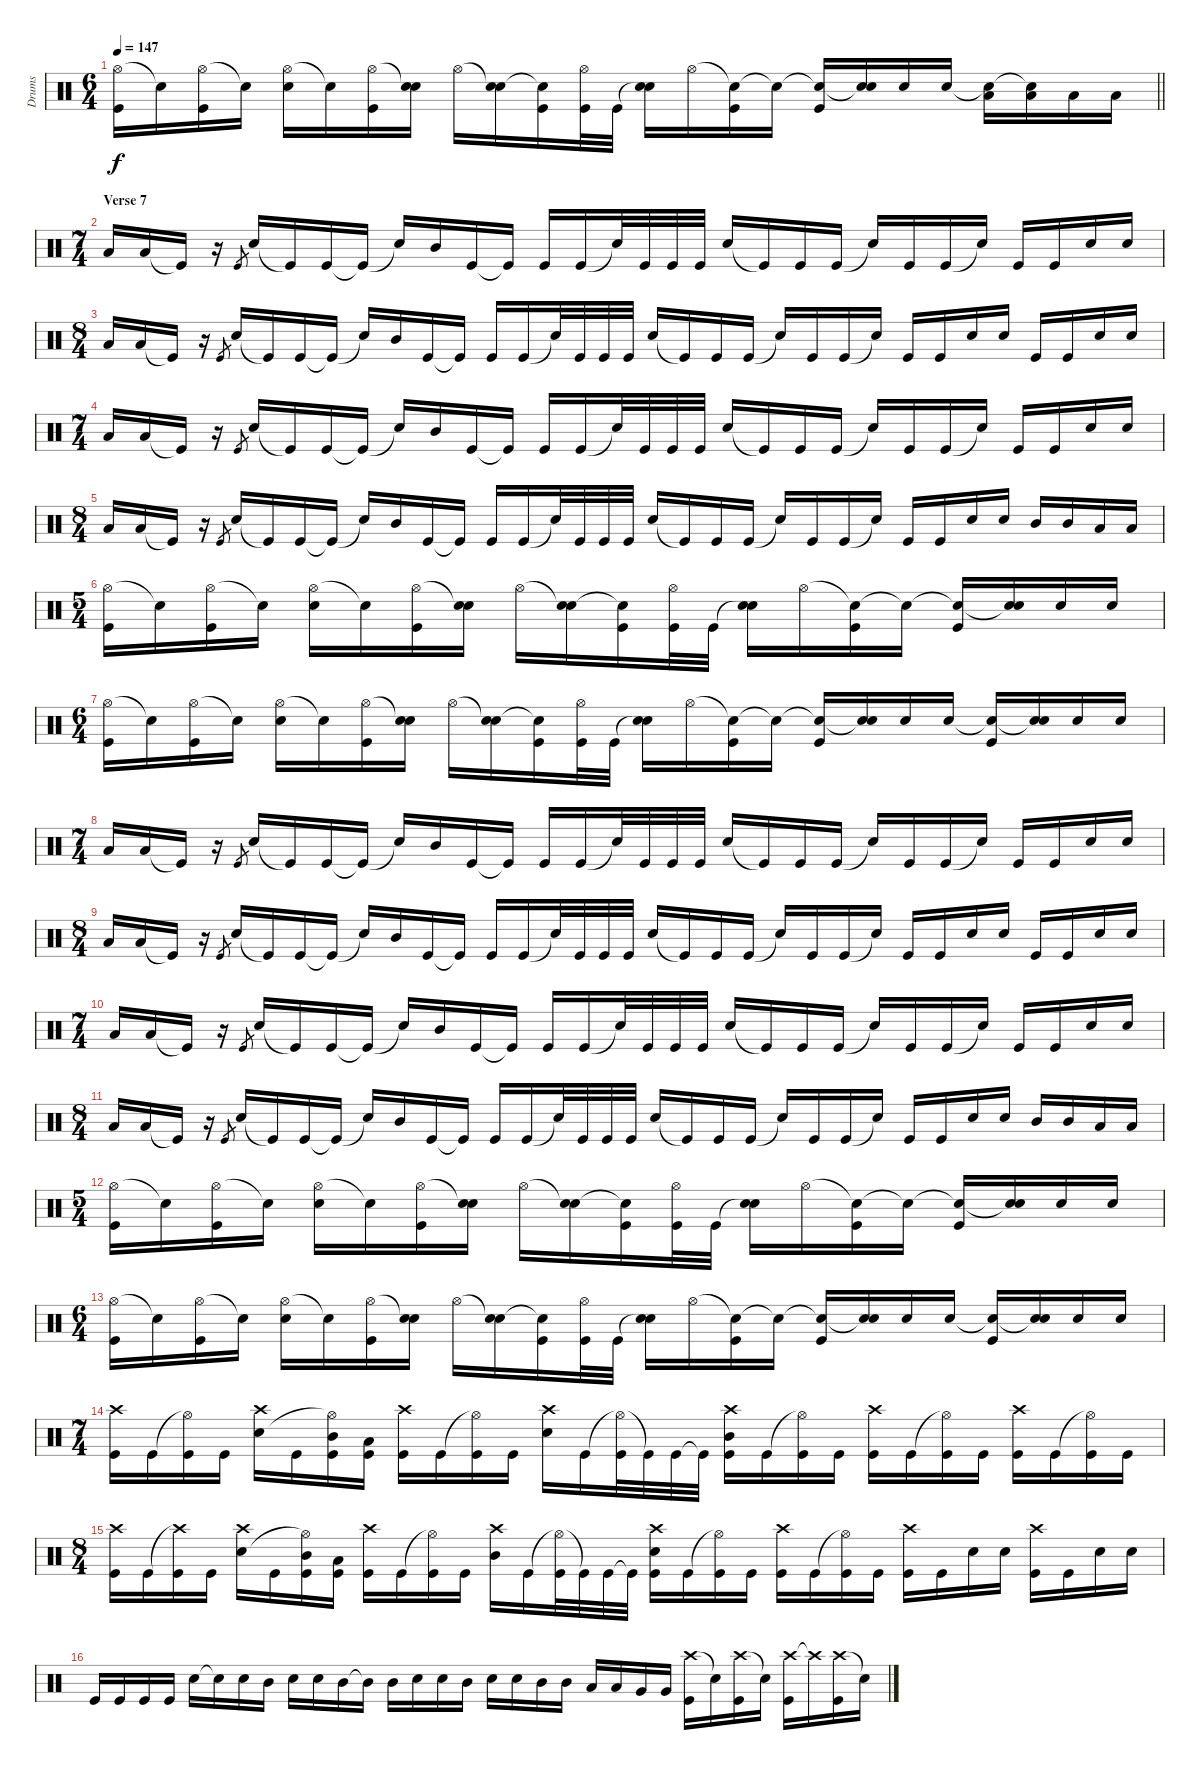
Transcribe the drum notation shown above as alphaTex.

\track ("Drums" "Drums") {instrument percussion}
\staff {score}
\articulation defaults
\ts (6 4)
\tempo 147
\clef neutral
\barLineRight lightlight
\ks c
("Hi-Hat (open)" "Kick (hit)").16{dy f} "Snare (hit)"{t}.16 ("Hi-Hat (open)" "Kick (hit)").16 "Snare (hit)"{t}.16 ("Hi-Hat (open)" "Electric Snare (hit)").16 "Snare (hit)"{t}.16 ("Hi-Hat (open)" "Kick (hit)").16 ("Snare (hit)"{t} "Electric Snare (hit)").16 "Hi-Hat (open)".16 ("Snare (hit)"{t} "Electric Snare (hit)").16 ("Snare (hit)"{t} "Kick (hit)").16 ("Hi-Hat (open)" "Kick (hit)").32 "Kick (hit)".32 ("Snare (hit)"{t} "Electric Snare (hit)").16 "Hi-Hat (open)".16 ("Snare (hit)"{t} "Kick (hit)").16 "Snare (hit)"{t}.16 ("Snare (hit)"{t} "Kick (hit)").16 ("Snare (hit)"{t} "Electric Snare (hit)").16 "Electric Snare (hit)".16 "Electric Snare (hit)".16 ("Snare (hit)"{t} "Low Tom (hit)").16 ("Snare (hit)"{t} "Low Tom (hit)").16 "Low Tom (hit)".16 "Low Tom (hit)".16 |
\ts (7 4)
\section ("" "Verse 7")
"Low Tom (hit)".16 "Low Tom (hit)".16 "Kick (hit)"{t}.16 r.16 "Kick (hit)".8{gr} "Electric Snare (hit)".16 "Kick (hit)"{t}.16 "Kick (hit)".16 "Kick (hit)"{t}.16 "Snare (hit)"{t}.16 "Mid Tom (hit)".16 "Kick (hit)".16 "Kick (hit)"{t}.16 "Kick (hit)".16 "Kick (hit)".16 "Snare (hit)"{t}.32 "Kick (hit)".32 "Kick (hit)".32 "Kick (hit)".32 "Electric Snare (hit)".16 "Kick (hit)"{t}.16 "Kick (hit)".16 "Kick (hit)".16 "Snare (hit)"{t}.16 "Kick (hit)".16 "Kick (hit)".16 "Snare (hit)"{t}.16 "Kick (hit)".16 "Kick (hit)".16 "Electric Snare (hit)".16 "Electric Snare (hit)".16 |
\ts (8 4)
"Low Tom (hit)".16 "Low Tom (hit)".16 "Kick (hit)"{t}.16 r.16 "Kick (hit)".8{gr} "Electric Snare (hit)".16 "Kick (hit)"{t}.16 "Kick (hit)".16 "Kick (hit)"{t}.16 "Snare (hit)"{t}.16 "Mid Tom (hit)".16 "Kick (hit)".16 "Kick (hit)"{t}.16 "Kick (hit)".16 "Kick (hit)".16 "Snare (hit)"{t}.32 "Kick (hit)".32 "Kick (hit)".32 "Kick (hit)".32 "Electric Snare (hit)".16 "Kick (hit)"{t}.16 "Kick (hit)".16 "Kick (hit)".16 "Snare (hit)"{t}.16 "Kick (hit)".16 "Kick (hit)".16 "Snare (hit)"{t}.16 "Kick (hit)".16 "Kick (hit)".16 "Electric Snare (hit)".16 "Electric Snare (hit)".16 "Kick (hit)".16 "Kick (hit)".16 "Electric Snare (hit)".16 "Electric Snare (hit)".16 |
\ts (7 4)
"Low Tom (hit)".16 "Low Tom (hit)".16 "Kick (hit)"{t}.16 r.16 "Kick (hit)".8{gr} "Electric Snare (hit)".16 "Kick (hit)"{t}.16 "Kick (hit)".16 "Kick (hit)"{t}.16 "Snare (hit)"{t}.16 "Mid Tom (hit)".16 "Kick (hit)".16 "Kick (hit)"{t}.16 "Kick (hit)".16 "Kick (hit)".16 "Snare (hit)"{t}.32 "Kick (hit)".32 "Kick (hit)".32 "Kick (hit)".32 "Electric Snare (hit)".16 "Kick (hit)"{t}.16 "Kick (hit)".16 "Kick (hit)".16 "Snare (hit)"{t}.16 "Kick (hit)".16 "Kick (hit)".16 "Snare (hit)"{t}.16 "Kick (hit)".16 "Kick (hit)".16 "Electric Snare (hit)".16 "Electric Snare (hit)".16 |
\ts (8 4)
"Low Tom (hit)".16 "Low Tom (hit)".16 "Kick (hit)"{t}.16 r.16 "Kick (hit)".8{gr} "Electric Snare (hit)".16 "Kick (hit)"{t}.16 "Kick (hit)".16 "Kick (hit)"{t}.16 "Snare (hit)"{t}.16 "Mid Tom (hit)".16 "Kick (hit)".16 "Kick (hit)"{t}.16 "Kick (hit)".16 "Kick (hit)".16 "Snare (hit)"{t}.32 "Kick (hit)".32 "Kick (hit)".32 "Kick (hit)".32 "Electric Snare (hit)".16 "Kick (hit)"{t}.16 "Kick (hit)".16 "Kick (hit)".16 "Snare (hit)"{t}.16 "Kick (hit)".16 "Kick (hit)".16 "Snare (hit)"{t}.16 "Kick (hit)".16 "Kick (hit)".16 "Electric Snare (hit)".16 "Electric Snare (hit)".16 "Mid Tom (hit)".16 "Mid Tom (hit)".16 "Low Tom (hit)".16 "Low Tom (hit)".16 |
\ts (5 4)
("Hi-Hat (open)" "Kick (hit)").16 "Snare (hit)"{t}.16 ("Hi-Hat (open)" "Kick (hit)").16 "Snare (hit)"{t}.16 ("Hi-Hat (open)" "Electric Snare (hit)").16 "Snare (hit)"{t}.16 ("Hi-Hat (open)" "Kick (hit)").16 ("Snare (hit)"{t} "Electric Snare (hit)").16 "Hi-Hat (open)".16 ("Snare (hit)"{t} "Electric Snare (hit)").16 ("Snare (hit)"{t} "Kick (hit)").16 ("Hi-Hat (open)" "Kick (hit)").32 "Kick (hit)".32 ("Snare (hit)"{t} "Electric Snare (hit)").16 "Hi-Hat (open)".16 ("Snare (hit)"{t} "Kick (hit)").16 "Snare (hit)"{t}.16 ("Snare (hit)"{t} "Kick (hit)").16 ("Snare (hit)"{t} "Electric Snare (hit)").16 "Electric Snare (hit)".16 "Electric Snare (hit)".16 |
\ts (6 4)
("Hi-Hat (open)" "Kick (hit)").16 "Snare (hit)"{t}.16 ("Hi-Hat (open)" "Kick (hit)").16 "Snare (hit)"{t}.16 ("Hi-Hat (open)" "Electric Snare (hit)").16 "Snare (hit)"{t}.16 ("Hi-Hat (open)" "Kick (hit)").16 ("Snare (hit)"{t} "Electric Snare (hit)").16 "Hi-Hat (open)".16 ("Snare (hit)"{t} "Electric Snare (hit)").16 ("Snare (hit)"{t} "Kick (hit)").16 ("Hi-Hat (open)" "Kick (hit)").32 "Kick (hit)".32 ("Snare (hit)"{t} "Electric Snare (hit)").16 "Hi-Hat (open)".16 ("Snare (hit)"{t} "Kick (hit)").16 "Snare (hit)"{t}.16 ("Snare (hit)"{t} "Kick (hit)").16 ("Snare (hit)"{t} "Electric Snare (hit)").16 "Electric Snare (hit)".16 "Electric Snare (hit)".16 ("Snare (hit)"{t} "Kick (hit)").16 ("Snare (hit)"{t} "Electric Snare (hit)").16 "Electric Snare (hit)".16 "Electric Snare (hit)".16 |
\ts (7 4)
"Low Tom (hit)".16 "Low Tom (hit)".16 "Kick (hit)"{t}.16 r.16 "Kick (hit)".8{gr} "Electric Snare (hit)".16 "Kick (hit)"{t}.16 "Kick (hit)".16 "Kick (hit)"{t}.16 "Snare (hit)"{t}.16 "Mid Tom (hit)".16 "Kick (hit)".16 "Kick (hit)"{t}.16 "Kick (hit)".16 "Kick (hit)".16 "Snare (hit)"{t}.32 "Kick (hit)".32 "Kick (hit)".32 "Kick (hit)".32 "Electric Snare (hit)".16 "Kick (hit)"{t}.16 "Kick (hit)".16 "Kick (hit)".16 "Snare (hit)"{t}.16 "Kick (hit)".16 "Kick (hit)".16 "Snare (hit)"{t}.16 "Kick (hit)".16 "Kick (hit)".16 "Electric Snare (hit)".16 "Electric Snare (hit)".16 |
\ts (8 4)
"Low Tom (hit)".16 "Low Tom (hit)".16 "Kick (hit)"{t}.16 r.16 "Kick (hit)".8{gr} "Electric Snare (hit)".16 "Kick (hit)"{t}.16 "Kick (hit)".16 "Kick (hit)"{t}.16 "Snare (hit)"{t}.16 "Mid Tom (hit)".16 "Kick (hit)".16 "Kick (hit)"{t}.16 "Kick (hit)".16 "Kick (hit)".16 "Snare (hit)"{t}.32 "Kick (hit)".32 "Kick (hit)".32 "Kick (hit)".32 "Electric Snare (hit)".16 "Kick (hit)"{t}.16 "Kick (hit)".16 "Kick (hit)".16 "Snare (hit)"{t}.16 "Kick (hit)".16 "Kick (hit)".16 "Snare (hit)"{t}.16 "Kick (hit)".16 "Kick (hit)".16 "Electric Snare (hit)".16 "Electric Snare (hit)".16 "Kick (hit)".16 "Kick (hit)".16 "Electric Snare (hit)".16 "Electric Snare (hit)".16 |
\ts (7 4)
"Low Tom (hit)".16 "Low Tom (hit)".16 "Kick (hit)"{t}.16 r.16 "Kick (hit)".8{gr} "Electric Snare (hit)".16 "Kick (hit)"{t}.16 "Kick (hit)".16 "Kick (hit)"{t}.16 "Snare (hit)"{t}.16 "Mid Tom (hit)".16 "Kick (hit)".16 "Kick (hit)"{t}.16 "Kick (hit)".16 "Kick (hit)".16 "Snare (hit)"{t}.32 "Kick (hit)".32 "Kick (hit)".32 "Kick (hit)".32 "Electric Snare (hit)".16 "Kick (hit)"{t}.16 "Kick (hit)".16 "Kick (hit)".16 "Snare (hit)"{t}.16 "Kick (hit)".16 "Kick (hit)".16 "Snare (hit)"{t}.16 "Kick (hit)".16 "Kick (hit)".16 "Electric Snare (hit)".16 "Electric Snare (hit)".16 |
\ts (8 4)
"Low Tom (hit)".16 "Low Tom (hit)".16 "Kick (hit)"{t}.16 r.16 "Kick (hit)".8{gr} "Electric Snare (hit)".16 "Kick (hit)"{t}.16 "Kick (hit)".16 "Kick (hit)"{t}.16 "Snare (hit)"{t}.16 "Mid Tom (hit)".16 "Kick (hit)".16 "Kick (hit)"{t}.16 "Kick (hit)".16 "Kick (hit)".16 "Snare (hit)"{t}.32 "Kick (hit)".32 "Kick (hit)".32 "Kick (hit)".32 "Electric Snare (hit)".16 "Kick (hit)"{t}.16 "Kick (hit)".16 "Kick (hit)".16 "Snare (hit)"{t}.16 "Kick (hit)".16 "Kick (hit)".16 "Snare (hit)"{t}.16 "Kick (hit)".16 "Kick (hit)".16 "Electric Snare (hit)".16 "Electric Snare (hit)".16 "Mid Tom (hit)".16 "Mid Tom (hit)".16 "Low Tom (hit)".16 "Low Tom (hit)".16 |
\ts (5 4)
("Hi-Hat (open)" "Kick (hit)").16 "Snare (hit)"{t}.16 ("Hi-Hat (open)" "Kick (hit)").16 "Snare (hit)"{t}.16 ("Hi-Hat (open)" "Electric Snare (hit)").16 "Snare (hit)"{t}.16 ("Hi-Hat (open)" "Kick (hit)").16 ("Snare (hit)"{t} "Electric Snare (hit)").16 "Hi-Hat (open)".16 ("Snare (hit)"{t} "Electric Snare (hit)").16 ("Snare (hit)"{t} "Kick (hit)").16 ("Hi-Hat (open)" "Kick (hit)").32 "Kick (hit)".32 ("Snare (hit)"{t} "Electric Snare (hit)").16 "Hi-Hat (open)".16 ("Snare (hit)"{t} "Kick (hit)").16 "Snare (hit)"{t}.16 ("Snare (hit)"{t} "Kick (hit)").16 ("Snare (hit)"{t} "Electric Snare (hit)").16 "Electric Snare (hit)".16 "Electric Snare (hit)".16 |
\ts (6 4)
("Hi-Hat (open)" "Kick (hit)").16 "Snare (hit)"{t}.16 ("Hi-Hat (open)" "Kick (hit)").16 "Snare (hit)"{t}.16 ("Hi-Hat (open)" "Electric Snare (hit)").16 "Snare (hit)"{t}.16 ("Hi-Hat (open)" "Kick (hit)").16 ("Snare (hit)"{t} "Electric Snare (hit)").16 "Hi-Hat (open)".16 ("Snare (hit)"{t} "Electric Snare (hit)").16 ("Snare (hit)"{t} "Kick (hit)").16 ("Hi-Hat (open)" "Kick (hit)").32 "Kick (hit)".32 ("Snare (hit)"{t} "Electric Snare (hit)").16 "Hi-Hat (open)".16 ("Snare (hit)"{t} "Kick (hit)").16 "Snare (hit)"{t}.16 ("Snare (hit)"{t} "Kick (hit)").16 ("Snare (hit)"{t} "Electric Snare (hit)").16 "Electric Snare (hit)".16 "Electric Snare (hit)".16 ("Snare (hit)"{t} "Kick (hit)").16 ("Snare (hit)"{t} "Electric Snare (hit)").16 "Electric Snare (hit)".16 "Electric Snare (hit)".16 |
\ts (7 4)
("Crash high (hit)" "Kick (hit)").16 "Kick (hit)".16 ("Hi-Hat (open)"{t} "Kick (hit)").16 "Kick (hit)".16 ("Crash high (hit)" "Electric Snare (hit)").16 "Kick (hit)".16 ("Mid Tom (hit)" "Hi-Hat (open)"{t} "Kick (hit)").16 ("Low Tom (hit)" "Kick (hit)").16 ("Crash high (hit)" "Kick (hit)").16 "Kick (hit)".16 ("Hi-Hat (open)"{t} "Kick (hit)").16 "Kick (hit)".16 ("Crash high (hit)" "Electric Snare (hit)").16 "Kick (hit)".16 ("Hi-Hat (open)"{t} "Kick (hit)").32 "Kick (hit)"{t}.32 "Kick (hit)".32 "Kick (hit)"{t}.32 ("Mid Tom (hit)" "Crash high (hit)" "Kick (hit)").16 "Kick (hit)".16 ("Hi-Hat (open)"{t} "Kick (hit)").16 "Kick (hit)".16 ("Crash high (hit)" "Kick (hit)").16 "Kick (hit)".16 ("Hi-Hat (open)"{t} "Kick (hit)").16 "Kick (hit)".16 ("Crash high (hit)" "Kick (hit)").16 "Kick (hit)".16 ("Hi-Hat (open)"{t} "Kick (hit)").16 "Kick (hit)".16 |
\ts (8 4)
("Crash high (hit)" "Kick (hit)").16 "Kick (hit)".16 ("Crash high (hit)"{t} "Kick (hit)").16 "Kick (hit)".16 ("Crash high (hit)" "Electric Snare (hit)").16 "Kick (hit)".16 ("Mid Tom (hit)" "Hi-Hat (open)"{t} "Kick (hit)").16 ("Low Tom (hit)" "Kick (hit)").16 ("Crash high (hit)" "Kick (hit)").16 "Kick (hit)".16 ("Hi-Hat (open)"{t} "Kick (hit)").16 "Kick (hit)".16 ("Crash high (hit)" "Mid Tom (hit)").16 "Kick (hit)".16 ("Hi-Hat (open)"{t} "Kick (hit)").32 "Kick (hit)"{t}.32 "Kick (hit)".32 "Kick (hit)"{t}.32 ("Electric Snare (hit)" "Crash high (hit)" "Kick (hit)").16 "Kick (hit)".16 ("Hi-Hat (open)"{t} "Kick (hit)").16 "Kick (hit)".16 ("Crash high (hit)" "Kick (hit)").16 "Kick (hit)".16 ("Hi-Hat (open)"{t} "Kick (hit)").16 "Kick (hit)".16 ("Crash high (hit)" "Kick (hit)").16 "Kick (hit)".16 "Electric Snare (hit)".16 "Electric Snare (hit)".16 ("Crash high (hit)" "Kick (hit)").16 "Kick (hit)".16 "Electric Snare (hit)".16 "Electric Snare (hit)".16 |
"Kick (hit)".16 "Kick (hit)".16 "Kick (hit)".16 "Kick (hit)".16 "Electric Snare (hit)".16 "Snare (hit)"{t}.16 "Electric Snare (hit)".16 "Mid Tom (hit)".16 "Electric Snare (hit)".16 "Electric Snare (hit)".16 "Mid Tom (hit)".16 "Mid Tom (hit)"{t}.16 "Mid Tom (hit)".16 "Electric Snare (hit)".16 "Electric Snare (hit)".16 "Mid Tom (hit)".16 "Electric Snare (hit)".16 "Electric Snare (hit)".16 "Mid Tom (hit)".16 "Mid Tom (hit)".16 "Low Tom (hit)".16 "Low Tom (hit)".16 "Very Low Tom (hit)".16 "Very Low Tom (hit)".16 ("Crash high (hit)" "Kick (hit)").16 "Snare (hit)"{t}.16 ("Crash high (hit)" "Kick (hit)").16 "Snare (hit)"{t}.16 ("Crash high (hit)" "Kick (hit)").16 "Crash high (hit)"{t}.16 ("Crash high (hit)" "Kick (hit)").16 "Snare (hit)"{t}.16
